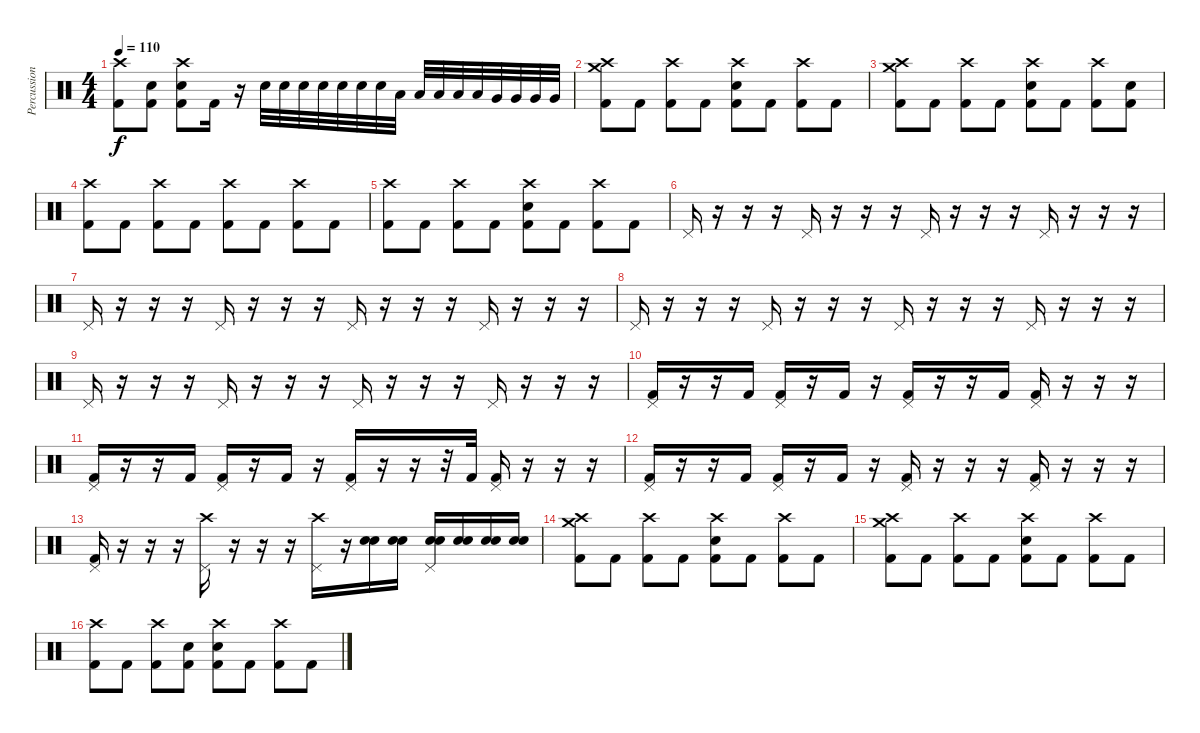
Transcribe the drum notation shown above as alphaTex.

\track ("Percussion" "Percussion") {instrument percussion}
\staff {score}
\articulation defaults
\ts (4 4)
\tempo 110
\clef neutral
\ks c
("Crash high (hit)" "Kick (hit) 2").8{dy f} ("Electric Snare (hit)" "Kick (hit) 2").8 ("Crash high (hit)" "Electric Snare (hit)" "Kick (hit) 2").8 "Kick (hit) 2".16 r.16 "Electric Snare (hit)".32 "Electric Snare (hit)".32 "Electric Snare (hit)".32 "Electric Snare (hit)".32 "Electric Snare (hit)".32 "Electric Snare (hit)".32 "Electric Snare (hit)".32 "Low Tom (hit)".32 "Low Tom (hit)".32 "Low Tom (hit)".32 "Low Tom (hit)".32 "Low Tom (hit)".32 "Very Low Tom (hit)".32 "Very Low Tom (hit)".32 "Very Low Tom (hit)".32 "Very Low Tom (hit)".32 |
("Crash high (hit)" "Crash medium (hit)" "Kick (hit) 2").8 "Kick (hit) 2".8 ("Crash high (hit)" "Kick (hit) 2").8 "Kick (hit) 2".8 ("Crash high (hit)" "Electric Snare (hit)" "Kick (hit) 2").8 "Kick (hit) 2".8 ("Crash high (hit)" "Kick (hit) 2").8 "Kick (hit) 2".8 |
("Crash high (hit)" "Crash medium (hit)" "Kick (hit) 2").8 "Kick (hit) 2".8 ("Crash high (hit)" "Kick (hit) 2").8 "Kick (hit) 2".8 ("Crash high (hit)" "Electric Snare (hit)" "Kick (hit) 2").8 "Kick (hit) 2".8 ("Crash high (hit)" "Kick (hit) 2").8 ("Electric Snare (hit)" "Kick (hit) 2").8 |
("Crash high (hit)" "Kick (hit) 2").8 "Kick (hit) 2".8 ("Crash high (hit)" "Kick (hit) 2").8 "Kick (hit) 2".8 ("Crash high (hit)" "Kick (hit) 2").8 "Kick (hit) 2".8 ("Crash high (hit)" "Kick (hit) 2").8 "Kick (hit) 2".8 |
("Crash high (hit)" "Kick (hit) 2").8 "Kick (hit) 2".8 ("Crash high (hit)" "Kick (hit) 2").8 "Kick (hit) 2".8 ("Crash high (hit)" "Electric Snare (hit)" "Kick (hit) 2").8 "Kick (hit) 2".8 ("Crash high (hit)" "Kick (hit) 2").8 "Kick (hit) 2".8 |
"Pedal Hi-Hat (hit)".16 r.16 r.16 r.16 "Pedal Hi-Hat (hit)".16 r.16 r.16 r.16 "Pedal Hi-Hat (hit)".16 r.16 r.16 r.16 "Pedal Hi-Hat (hit)".16 r.16 r.16 r.16 |
"Pedal Hi-Hat (hit)".16 r.16 r.16 r.16 "Pedal Hi-Hat (hit)".16 r.16 r.16 r.16 "Pedal Hi-Hat (hit)".16 r.16 r.16 r.16 "Pedal Hi-Hat (hit)".16 r.16 r.16 r.16 |
"Pedal Hi-Hat (hit)".16 r.16 r.16 r.16 "Pedal Hi-Hat (hit)".16 r.16 r.16 r.16 "Pedal Hi-Hat (hit)".16 r.16 r.16 r.16 "Pedal Hi-Hat (hit)".16 r.16 r.16 r.16 |
"Pedal Hi-Hat (hit)".16 r.16 r.16 r.16 "Pedal Hi-Hat (hit)".16 r.16 r.16 r.16 "Pedal Hi-Hat (hit)".16 r.16 r.16 r.16 "Pedal Hi-Hat (hit)".16 r.16 r.16 r.16 |
("Pedal Hi-Hat (hit)" "Kick (hit) 2").16 r.16 r.16 "Kick (hit) 2".16 ("Pedal Hi-Hat (hit)" "Kick (hit) 2").16 r.16 "Kick (hit) 2".16 r.16 ("Pedal Hi-Hat (hit)" "Kick (hit) 2").16 r.16 r.16 "Kick (hit) 2".16 ("Pedal Hi-Hat (hit)" "Kick (hit) 2").16 r.16 r.16 r.16 |
("Pedal Hi-Hat (hit)" "Kick (hit) 2").16 r.16 r.16 "Kick (hit) 2".16 ("Pedal Hi-Hat (hit)" "Kick (hit) 2").16 r.16 "Kick (hit) 2".16 r.16 ("Pedal Hi-Hat (hit)" "Kick (hit) 2").16 r.16 r.16 r.32 "Kick (hit) 2".32 ("Pedal Hi-Hat (hit)" "Kick (hit) 2").16 r.16 r.16 r.16 |
("Pedal Hi-Hat (hit)" "Kick (hit) 2").16 r.16 r.16 "Kick (hit) 2".16 ("Pedal Hi-Hat (hit)" "Kick (hit) 2").16 r.16 "Kick (hit) 2".16 r.16 ("Pedal Hi-Hat (hit)" "Kick (hit) 2").16 r.16 r.16 r.16 ("Pedal Hi-Hat (hit)" "Kick (hit) 2").16 r.16 r.16 r.16 |
("Pedal Hi-Hat (hit)" "Kick (hit) 2").16 r.16 r.16 r.16 ("Pedal Hi-Hat (hit)" "Crash high (hit)").16 r.16 r.16 r.16 ("Pedal Hi-Hat (hit)" "Crash high (hit)").16 r.16 ("Electric Snare (hit)" "Electric Snare (hit)").16 ("Electric Snare (hit)" "Electric Snare (hit)").16 ("Pedal Hi-Hat (hit)" "Electric Snare (hit)" "Electric Snare (hit)").16 ("Electric Snare (hit)" "Electric Snare (hit)").16 ("Electric Snare (hit)" "Electric Snare (hit)").16 ("Electric Snare (hit)" "Electric Snare (hit)").16 |
("Crash high (hit)" "Crash medium (hit)" "Kick (hit) 2").8 "Kick (hit) 2".8 ("Crash high (hit)" "Kick (hit) 2").8 "Kick (hit) 2".8 ("Crash high (hit)" "Electric Snare (hit)" "Kick (hit) 2").8 "Kick (hit) 2".8 ("Crash high (hit)" "Kick (hit) 2").8 "Kick (hit) 2".8 |
("Crash high (hit)" "Crash medium (hit)" "Kick (hit) 2").8 "Kick (hit) 2".8 ("Crash high (hit)" "Kick (hit) 2").8 "Kick (hit) 2".8 ("Crash high (hit)" "Electric Snare (hit)" "Kick (hit) 2").8 "Kick (hit) 2".8 ("Crash high (hit)" "Kick (hit) 2").8 "Kick (hit) 2".8 |
("Crash high (hit)" "Kick (hit) 2").8 "Kick (hit) 2".8 ("Crash high (hit)" "Kick (hit) 2").8 ("Electric Snare (hit)" "Kick (hit) 2").8 ("Crash high (hit)" "Electric Snare (hit)" "Kick (hit) 2").8 "Kick (hit) 2".8 ("Crash high (hit)" "Kick (hit) 2").8 "Kick (hit) 2".8
